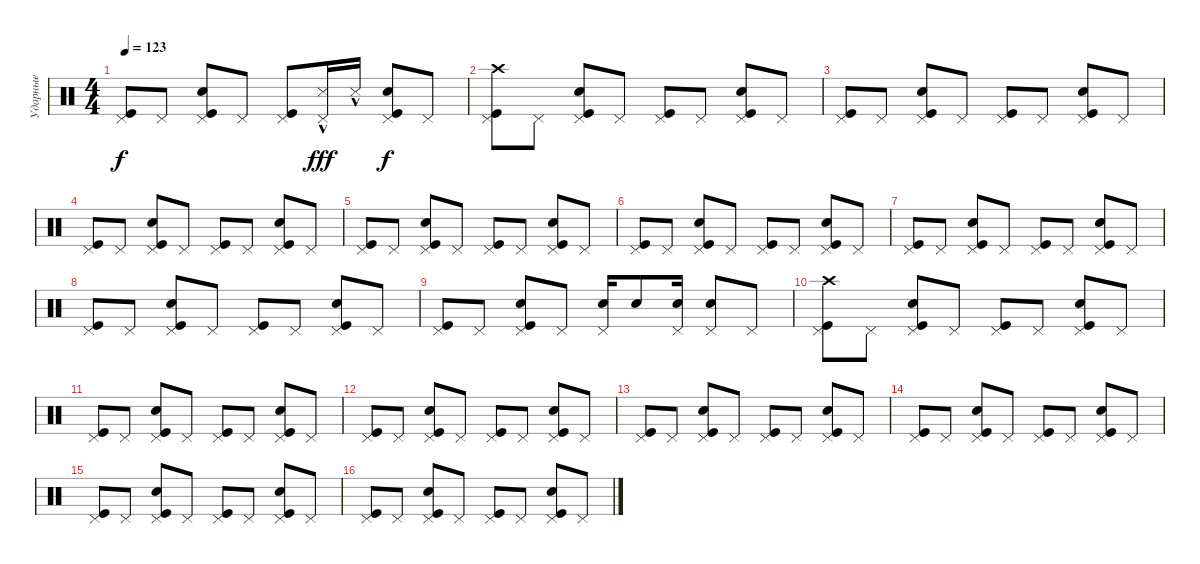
\track ("Ударные" "Ударные") {instrument percussion}
\staff {score}
\articulation defaults
\ts (4 4)
\tempo 123
\clef neutral
\ks c
("Pedal Hi-Hat (hit)" "Kick (hit)").8{dy f} "Pedal Hi-Hat (hit)".8 ("Pedal Hi-Hat (hit)" "Kick (hit)" "Snare (hit) 2").8 "Pedal Hi-Hat (hit)".8 ("Pedal Hi-Hat (hit)" "Kick (hit)").8 ("Snare (side stick) 3"{hac} "Pedal Hi-Hat (hit)").16{dy fff} "Snare (side stick) 3"{hac}.16 ("Snare (hit) 2" "Kick (hit)" "Pedal Hi-Hat (hit)").8{dy f} "Pedal Hi-Hat (hit)".8 |
("Pedal Hi-Hat (hit)" "Kick (hit)" "Crash high (hit)").8 "Pedal Hi-Hat (hit)".8 ("Pedal Hi-Hat (hit)" "Kick (hit)" "Snare (hit) 2").8 "Pedal Hi-Hat (hit)".8 ("Pedal Hi-Hat (hit)" "Kick (hit)").8 "Pedal Hi-Hat (hit)".8 ("Pedal Hi-Hat (hit)" "Kick (hit)" "Snare (hit) 2").8 "Pedal Hi-Hat (hit)".8 |
("Pedal Hi-Hat (hit)" "Kick (hit)").8 "Pedal Hi-Hat (hit)".8 ("Pedal Hi-Hat (hit)" "Kick (hit)" "Snare (hit) 2").8 "Pedal Hi-Hat (hit)".8 ("Pedal Hi-Hat (hit)" "Kick (hit)").8 "Pedal Hi-Hat (hit)".8 ("Pedal Hi-Hat (hit)" "Kick (hit)" "Snare (hit) 2").8 "Pedal Hi-Hat (hit)".8 |
("Pedal Hi-Hat (hit)" "Kick (hit)").8 "Pedal Hi-Hat (hit)".8 ("Pedal Hi-Hat (hit)" "Kick (hit)" "Snare (hit) 2").8 "Pedal Hi-Hat (hit)".8 ("Pedal Hi-Hat (hit)" "Kick (hit)").8 "Pedal Hi-Hat (hit)".8 ("Pedal Hi-Hat (hit)" "Kick (hit)" "Snare (hit) 2").8 "Pedal Hi-Hat (hit)".8 |
("Pedal Hi-Hat (hit)" "Kick (hit)").8 "Pedal Hi-Hat (hit)".8 ("Pedal Hi-Hat (hit)" "Kick (hit)" "Snare (hit) 2").8 "Pedal Hi-Hat (hit)".8 ("Pedal Hi-Hat (hit)" "Kick (hit)").8 "Pedal Hi-Hat (hit)".8 ("Pedal Hi-Hat (hit)" "Kick (hit)" "Snare (hit) 2").8 "Pedal Hi-Hat (hit)".8 |
("Pedal Hi-Hat (hit)" "Kick (hit)").8 "Pedal Hi-Hat (hit)".8 ("Pedal Hi-Hat (hit)" "Kick (hit)" "Snare (hit) 2").8 "Pedal Hi-Hat (hit)".8 ("Pedal Hi-Hat (hit)" "Kick (hit)").8 "Pedal Hi-Hat (hit)".8 ("Pedal Hi-Hat (hit)" "Kick (hit)" "Snare (hit) 2").8 "Pedal Hi-Hat (hit)".8 |
("Pedal Hi-Hat (hit)" "Kick (hit)").8 "Pedal Hi-Hat (hit)".8 ("Pedal Hi-Hat (hit)" "Kick (hit)" "Snare (hit) 2").8 "Pedal Hi-Hat (hit)".8 ("Pedal Hi-Hat (hit)" "Kick (hit)").8 "Pedal Hi-Hat (hit)".8 ("Pedal Hi-Hat (hit)" "Kick (hit)" "Snare (hit) 2").8 "Pedal Hi-Hat (hit)".8 |
("Pedal Hi-Hat (hit)" "Kick (hit)").8 "Pedal Hi-Hat (hit)".8 ("Pedal Hi-Hat (hit)" "Kick (hit)" "Snare (hit) 2").8 "Pedal Hi-Hat (hit)".8 ("Pedal Hi-Hat (hit)" "Kick (hit)").8 "Pedal Hi-Hat (hit)".8 ("Pedal Hi-Hat (hit)" "Kick (hit)" "Snare (hit) 2").8 "Pedal Hi-Hat (hit)".8 |
("Pedal Hi-Hat (hit)" "Kick (hit)").8 "Pedal Hi-Hat (hit)".8 ("Pedal Hi-Hat (hit)" "Kick (hit)" "Snare (hit) 2").8 "Pedal Hi-Hat (hit)".8 ("Pedal Hi-Hat (hit)" "Snare (hit) 2").16 "Snare (hit) 2".8 ("Snare (hit) 2" "Pedal Hi-Hat (hit)").16 ("Pedal Hi-Hat (hit)" "Snare (hit) 2").8 "Pedal Hi-Hat (hit)".8 |
("Pedal Hi-Hat (hit)" "Kick (hit)" "Crash high (hit)").8 "Pedal Hi-Hat (hit)".8 ("Pedal Hi-Hat (hit)" "Kick (hit)" "Snare (hit) 2").8 "Pedal Hi-Hat (hit)".8 ("Pedal Hi-Hat (hit)" "Kick (hit)").8 "Pedal Hi-Hat (hit)".8 ("Pedal Hi-Hat (hit)" "Kick (hit)" "Snare (hit) 2").8 "Pedal Hi-Hat (hit)".8 |
("Pedal Hi-Hat (hit)" "Kick (hit)").8 "Pedal Hi-Hat (hit)".8 ("Pedal Hi-Hat (hit)" "Kick (hit)" "Snare (hit) 2").8 "Pedal Hi-Hat (hit)".8 ("Pedal Hi-Hat (hit)" "Kick (hit)").8 "Pedal Hi-Hat (hit)".8 ("Pedal Hi-Hat (hit)" "Kick (hit)" "Snare (hit) 2").8 "Pedal Hi-Hat (hit)".8 |
("Pedal Hi-Hat (hit)" "Kick (hit)").8 "Pedal Hi-Hat (hit)".8 ("Pedal Hi-Hat (hit)" "Kick (hit)" "Snare (hit) 2").8 "Pedal Hi-Hat (hit)".8 ("Pedal Hi-Hat (hit)" "Kick (hit)").8 "Pedal Hi-Hat (hit)".8 ("Pedal Hi-Hat (hit)" "Kick (hit)" "Snare (hit) 2").8 "Pedal Hi-Hat (hit)".8 |
("Pedal Hi-Hat (hit)" "Kick (hit)").8 "Pedal Hi-Hat (hit)".8 ("Pedal Hi-Hat (hit)" "Kick (hit)" "Snare (hit) 2").8 "Pedal Hi-Hat (hit)".8 ("Pedal Hi-Hat (hit)" "Kick (hit)").8 "Pedal Hi-Hat (hit)".8 ("Pedal Hi-Hat (hit)" "Kick (hit)" "Snare (hit) 2").8 "Pedal Hi-Hat (hit)".8 |
("Pedal Hi-Hat (hit)" "Kick (hit)").8 "Pedal Hi-Hat (hit)".8 ("Pedal Hi-Hat (hit)" "Kick (hit)" "Snare (hit) 2").8 "Pedal Hi-Hat (hit)".8 ("Pedal Hi-Hat (hit)" "Kick (hit)").8 "Pedal Hi-Hat (hit)".8 ("Pedal Hi-Hat (hit)" "Kick (hit)" "Snare (hit) 2").8 "Pedal Hi-Hat (hit)".8 |
("Pedal Hi-Hat (hit)" "Kick (hit)").8 "Pedal Hi-Hat (hit)".8 ("Pedal Hi-Hat (hit)" "Kick (hit)" "Snare (hit) 2").8 "Pedal Hi-Hat (hit)".8 ("Pedal Hi-Hat (hit)" "Kick (hit)").8 "Pedal Hi-Hat (hit)".8 ("Pedal Hi-Hat (hit)" "Kick (hit)" "Snare (hit) 2").8 "Pedal Hi-Hat (hit)".8 |
("Pedal Hi-Hat (hit)" "Kick (hit)").8 "Pedal Hi-Hat (hit)".8 ("Pedal Hi-Hat (hit)" "Kick (hit)" "Snare (hit) 2").8 "Pedal Hi-Hat (hit)".8 ("Pedal Hi-Hat (hit)" "Kick (hit)").8 "Pedal Hi-Hat (hit)".8 ("Pedal Hi-Hat (hit)" "Kick (hit)" "Snare (hit) 2").8 "Pedal Hi-Hat (hit)".8
